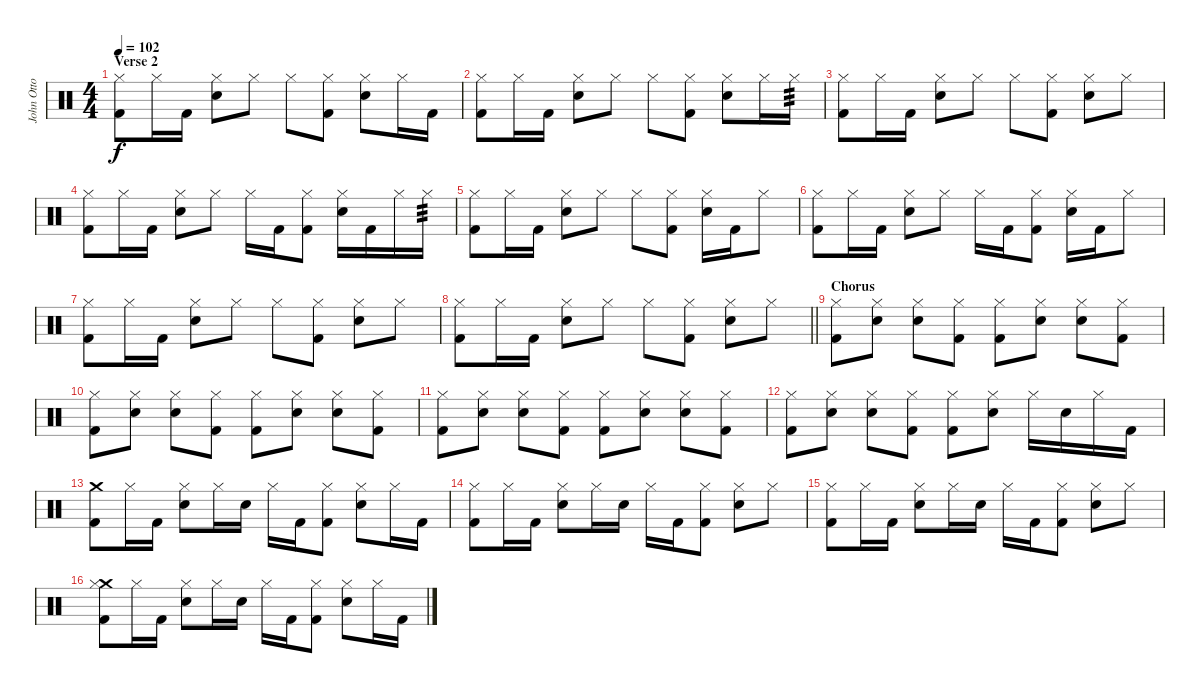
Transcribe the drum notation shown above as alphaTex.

\track ("John Otto (Drums)" "John Otto ") {instrument percussion}
\staff {score}
\articulation defaults
\ts (4 4)
\section ("" "Verse 2")
\tempo 102
\clef neutral
\ks c
("Hi-Hat (closed)" "Kick (hit) 2").8{dy f} "Hi-Hat (closed)".16 "Kick (hit) 2".16 ("Hi-Hat (closed)" "Snare (hit) 2").8 "Hi-Hat (closed)".8 "Hi-Hat (closed)".8 ("Hi-Hat (closed)" "Kick (hit) 2").8 ("Hi-Hat (closed)" "Snare (hit) 2").8 "Hi-Hat (closed)".16 "Kick (hit) 2".16 |
("Hi-Hat (closed)" "Kick (hit) 2").8 "Hi-Hat (closed)".16 "Kick (hit) 2".16 ("Hi-Hat (closed)" "Snare (hit) 2").8 "Hi-Hat (closed)".8 "Hi-Hat (closed)".8 ("Hi-Hat (closed)" "Kick (hit) 2").8 ("Hi-Hat (closed)" "Snare (hit) 2").8 "Hi-Hat (closed)".16 "Hi-Hat (closed)".16{tp 3} |
("Hi-Hat (closed)" "Kick (hit) 2").8 "Hi-Hat (closed)".16 "Kick (hit) 2".16 ("Hi-Hat (closed)" "Snare (hit) 2").8 "Hi-Hat (closed)".8 "Hi-Hat (closed)".8 ("Hi-Hat (closed)" "Kick (hit) 2").8 ("Hi-Hat (closed)" "Snare (hit) 2").8 "Hi-Hat (closed)".8 |
("Hi-Hat (closed)" "Kick (hit) 2").8 "Hi-Hat (closed)".16 "Kick (hit) 2".16 ("Hi-Hat (closed)" "Snare (hit) 2").8 "Hi-Hat (closed)".8 "Hi-Hat (closed)".16 "Kick (hit) 2".16 ("Hi-Hat (closed)" "Kick (hit) 2").8 ("Hi-Hat (closed)" "Snare (hit) 2").16 "Kick (hit) 2".16 "Hi-Hat (closed)".16 "Hi-Hat (closed)".16{tp 3} |
("Hi-Hat (closed)" "Kick (hit) 2").8 "Hi-Hat (closed)".16 "Kick (hit) 2".16 ("Hi-Hat (closed)" "Snare (hit) 2").8 "Hi-Hat (closed)".8 "Hi-Hat (closed)".8 ("Hi-Hat (closed)" "Kick (hit) 2").8 ("Hi-Hat (closed)" "Snare (hit) 2").16 "Kick (hit) 2".16 "Hi-Hat (closed)".8 |
("Hi-Hat (closed)" "Kick (hit) 2").8 "Hi-Hat (closed)".16 "Kick (hit) 2".16 ("Hi-Hat (closed)" "Snare (hit) 2").8 "Hi-Hat (closed)".8 "Hi-Hat (closed)".16 "Kick (hit) 2".16 ("Hi-Hat (closed)" "Kick (hit) 2").8 ("Hi-Hat (closed)" "Snare (hit) 2").16 "Kick (hit) 2".16 "Hi-Hat (closed)".8 |
("Hi-Hat (closed)" "Kick (hit) 2").8 "Hi-Hat (closed)".16 "Kick (hit) 2".16 ("Hi-Hat (closed)" "Snare (hit) 2").8 "Hi-Hat (closed)".8 "Hi-Hat (closed)".8 ("Hi-Hat (closed)" "Kick (hit) 2").8 ("Hi-Hat (closed)" "Snare (hit) 2").8 "Hi-Hat (closed)".8 |
\barLineRight lightlight
("Hi-Hat (closed)" "Kick (hit) 2").8 "Hi-Hat (closed)".16 "Kick (hit) 2".16 ("Hi-Hat (closed)" "Snare (hit) 2").8 "Hi-Hat (closed)".8 "Hi-Hat (closed)".8 ("Hi-Hat (closed)" "Kick (hit) 2").8 ("Hi-Hat (closed)" "Snare (hit) 2").8 "Hi-Hat (closed)".8 |
\section ("" "Chorus")
("Hi-Hat (closed)" "Kick (hit) 2").8 ("Hi-Hat (closed)" "Snare (hit) 2").8 ("Hi-Hat (closed)" "Snare (hit) 2").8 ("Hi-Hat (closed)" "Kick (hit) 2").8 ("Hi-Hat (closed)" "Kick (hit) 2").8 ("Hi-Hat (closed)" "Snare (hit) 2").8 ("Hi-Hat (closed)" "Snare (hit) 2").8 ("Hi-Hat (closed)" "Kick (hit) 2").8 |
("Hi-Hat (closed)" "Kick (hit) 2").8 ("Hi-Hat (closed)" "Snare (hit) 2").8 ("Hi-Hat (closed)" "Snare (hit) 2").8 ("Hi-Hat (closed)" "Kick (hit) 2").8 ("Hi-Hat (closed)" "Kick (hit) 2").8 ("Hi-Hat (closed)" "Snare (hit) 2").8 ("Hi-Hat (closed)" "Snare (hit) 2").8 ("Hi-Hat (closed)" "Kick (hit) 2").8 |
("Hi-Hat (closed)" "Kick (hit) 2").8 ("Hi-Hat (closed)" "Snare (hit) 2").8 ("Hi-Hat (closed)" "Snare (hit) 2").8 ("Hi-Hat (closed)" "Kick (hit) 2").8 ("Hi-Hat (closed)" "Kick (hit) 2").8 ("Hi-Hat (closed)" "Snare (hit) 2").8 ("Hi-Hat (closed)" "Snare (hit) 2").8 ("Hi-Hat (closed)" "Kick (hit) 2").8 |
("Hi-Hat (closed)" "Kick (hit) 2").8 ("Hi-Hat (closed)" "Snare (hit) 2").8 ("Hi-Hat (closed)" "Snare (hit) 2").8 ("Hi-Hat (closed)" "Kick (hit) 2").8 ("Hi-Hat (closed)" "Kick (hit) 2").8 ("Hi-Hat (closed)" "Snare (hit) 2").8 "Hi-Hat (closed)".16 "Snare (hit) 2".16 "Hi-Hat (closed)".16 "Kick (hit) 2".16 |
("Crash medium (hit)" "Kick (hit) 2").8 "Hi-Hat (closed)".16 "Kick (hit) 2".16 ("Hi-Hat (closed)" "Snare (hit) 2").8 "Hi-Hat (closed)".16 "Snare (hit) 2".16 "Hi-Hat (closed)".16 "Kick (hit) 2".16 ("Hi-Hat (closed)" "Kick (hit) 2").8 ("Hi-Hat (closed)" "Snare (hit) 2").8 "Hi-Hat (closed)".16 "Kick (hit) 2".16 |
("Hi-Hat (closed)" "Kick (hit) 2").8 "Hi-Hat (closed)".16 "Kick (hit) 2".16 ("Hi-Hat (closed)" "Snare (hit) 2").8 "Hi-Hat (closed)".16 "Snare (hit) 2".16 "Hi-Hat (closed)".16 "Kick (hit) 2".16 ("Hi-Hat (closed)" "Kick (hit) 2").8 ("Hi-Hat (closed)" "Snare (hit) 2").8 "Hi-Hat (closed)".8 |
("Hi-Hat (closed)" "Kick (hit) 2").8 "Hi-Hat (closed)".16 "Kick (hit) 2".16 ("Hi-Hat (closed)" "Snare (hit) 2").8 "Hi-Hat (closed)".16 "Snare (hit) 2".16 "Hi-Hat (closed)".16 "Kick (hit) 2".16 ("Hi-Hat (closed)" "Kick (hit) 2").8 ("Hi-Hat (closed)" "Snare (hit) 2").8 "Hi-Hat (closed)".8 |
("Crash medium (hit)" "Hi-Hat (closed)" "Kick (hit) 2").8 "Hi-Hat (closed)".16 "Kick (hit) 2".16 ("Hi-Hat (closed)" "Snare (hit) 2").8 "Hi-Hat (closed)".16 "Snare (hit) 2".16 "Hi-Hat (closed)".16 "Kick (hit) 2".16 ("Hi-Hat (closed)" "Kick (hit) 2").8 ("Hi-Hat (closed)" "Snare (hit) 2").8 "Hi-Hat (closed)".16 "Kick (hit) 2".16
